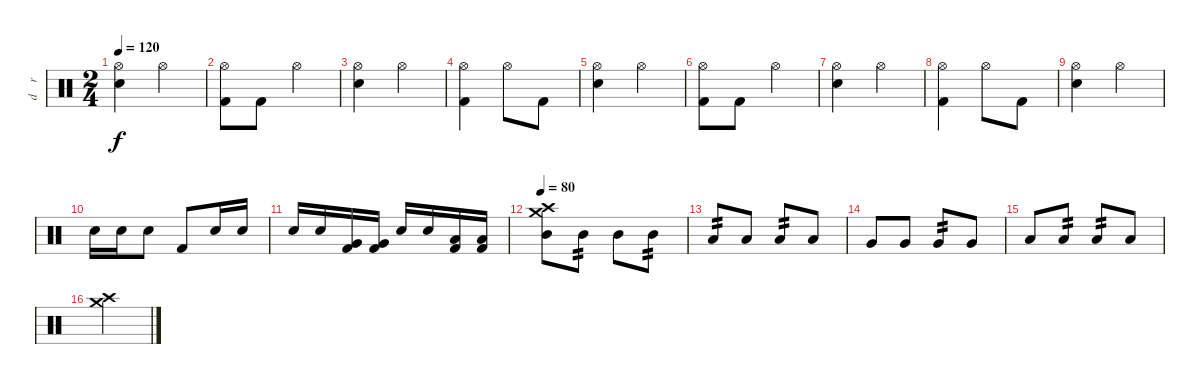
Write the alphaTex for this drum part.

\track ("d    r    u  m  s" "d    r    ") {instrument percussion}
\staff {score}
\articulation defaults
\ts (2 4)
\tempo 120
\clef neutral
\ks c
("Hi-Hat (open)" "Snare (hit) 2").4{dy f} "Hi-Hat (open)".4 |
("Hi-Hat (open)" "Kick (hit) 2").8 "Kick (hit) 2".8 "Hi-Hat (open)".4 |
("Hi-Hat (open)" "Snare (hit) 2").4 "Hi-Hat (open)".4 |
("Hi-Hat (open)" "Kick (hit) 2").4 "Hi-Hat (open)".8 "Kick (hit) 2".8 |
("Hi-Hat (open)" "Snare (hit) 2").4 "Hi-Hat (open)".4 |
("Hi-Hat (open)" "Kick (hit) 2").8 "Kick (hit) 2".8 "Hi-Hat (open)".4 |
("Hi-Hat (open)" "Snare (hit) 2").4 "Hi-Hat (open)".4 |
("Hi-Hat (open)" "Kick (hit) 2").4 "Hi-Hat (open)".8 "Kick (hit) 2".8 |
("Hi-Hat (open)" "Snare (hit) 2").4 "Hi-Hat (open)".4 |
"Snare (hit) 2".16 "Snare (hit) 2".16 "Snare (hit) 2".8 "Kick (hit) 2".8 "Snare (hit) 2".16 "Snare (hit) 2".16 |
"Snare (hit) 2".16 "Snare (hit) 2".16 ("Very Low Tom (hit)" "Kick (hit) 2").16 ("Very Low Tom (hit)" "Kick (hit) 2").16 "Snare (hit) 2".16 "Snare (hit) 2".16 ("Low Floor Tom (hit)" "Kick (hit) 2").16 ("Low Floor Tom (hit)" "Kick (hit) 2").16 |
\tempo 80
("Crash high (hit)" "Crash medium (hit)" "Mid Tom (hit)").8 "Mid Tom (hit)".8{tp 2} "Mid Tom (hit)".8 "Mid Tom (hit)".8{tp 2} |
"Low Tom (hit)".8{tp 2} "Low Tom (hit)".8 "Low Tom (hit)".8{tp 2} "Low Tom (hit)".8 |
"Very Low Tom (hit)".8 "Very Low Tom (hit)".8 "Very Low Tom (hit)".8{tp 2} "Very Low Tom (hit)".8 |
"Low Floor Tom (hit)".8 "Low Floor Tom (hit)".8{tp 2} "Low Floor Tom (hit)".8{tp 2} "Low Floor Tom (hit)".8 |
("Crash high (hit)" "Crash medium (hit)").2
